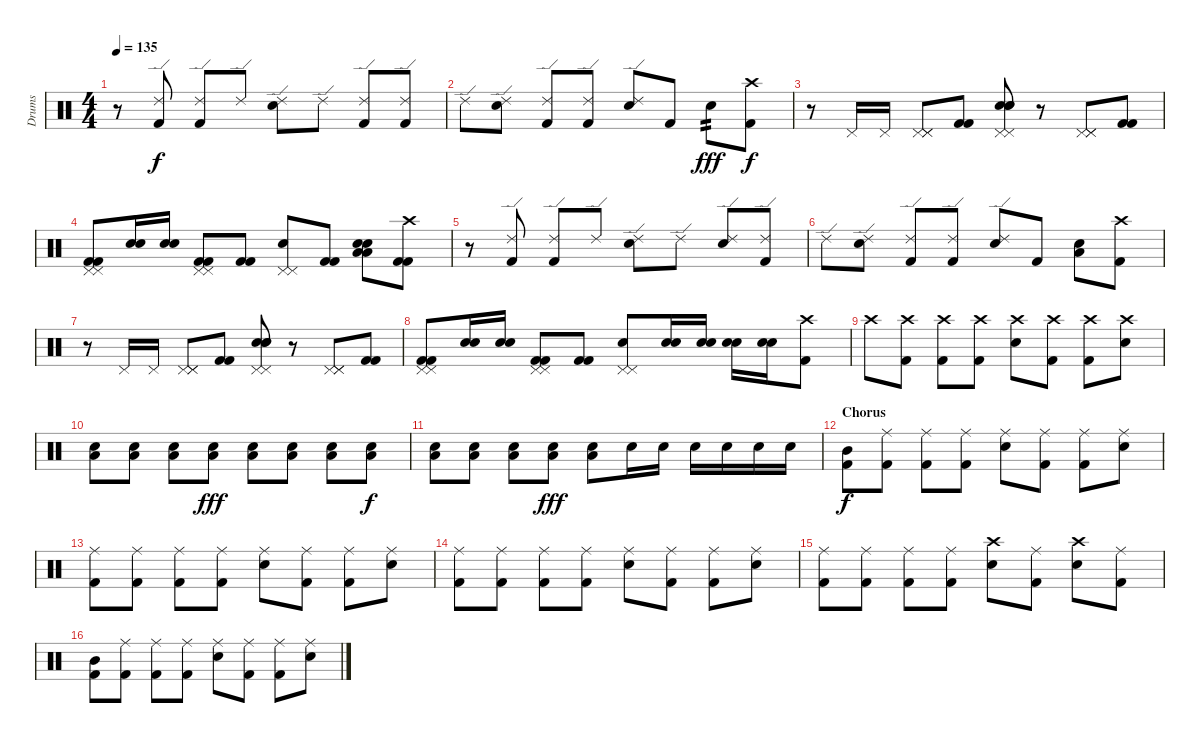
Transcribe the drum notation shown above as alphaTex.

\track ("Drums" "Drums") {instrument percussion}
\staff {score}
\articulation defaults
\ts (4 4)
\tempo 135
\clef neutral
\ks c
r.8{dy f} ("Ride (edge) 2" "Kick (hit) 2").8 ("Ride (edge) 2" "Kick (hit) 2").8 "Ride (edge) 2".8 ("Ride (edge) 2" "Snare (hit) 2").8 "Ride (edge) 2".8 ("Ride (edge) 2" "Kick (hit) 2").8 ("Ride (edge) 2" "Kick (hit) 2").8 |
"Ride (edge) 2".8 ("Ride (edge) 2" "Snare (hit) 2").8 ("Ride (edge) 2" "Kick (hit) 2").8 ("Ride (edge) 2" "Kick (hit) 2").8 ("Ride (edge) 2" "Snare (hit) 2").8 "Kick (hit) 2".8 "Snare (hit) 2".8{tp 2 dy fff} ("Crash high (hit)" "Kick (hit) 2").8{dy f} |
r.8 "Pedal Hi-Hat (hit)".16 "Pedal Hi-Hat (hit)".16 ("Pedal Hi-Hat (hit)" "Pedal Hi-Hat (hit)" "Pedal Hi-Hat (hit)").8 ("Kick (hit) 2" "Kick (hit) 2").8 ("Pedal Hi-Hat (hit)" "Pedal Hi-Hat (hit)" "Snare (hit) 2" "Snare (hit) 2" "Snare (hit) 2").8 r.8 ("Pedal Hi-Hat (hit)" "Pedal Hi-Hat (hit)" "Pedal Hi-Hat (hit)").8 ("Kick (hit) 2" "Kick (hit) 2").8 |
("Pedal Hi-Hat (hit)" "Pedal Hi-Hat (hit)" "Kick (hit) 2" "Kick (hit) 2").8 ("Snare (hit) 2" "Snare (hit) 2").16 ("Snare (hit) 2" "Snare (hit) 2").16 ("Pedal Hi-Hat (hit)" "Pedal Hi-Hat (hit)" "Kick (hit) 2" "Kick (hit) 2").8 ("Kick (hit) 2" "Kick (hit) 2").8 ("Pedal Hi-Hat (hit)" "Pedal Hi-Hat (hit)" "Snare (hit) 2").8 ("Kick (hit) 2" "Kick (hit) 2").8 ("Snare (hit) 2" "Snare (hit) 2" "Low Floor Tom (hit)" "Low Floor Tom (hit)").8 ("Crash high (hit)" "Kick (hit) 2" "Kick (hit) 2").8 |
r.8 ("Ride (edge) 2" "Kick (hit) 2").8 ("Ride (edge) 2" "Kick (hit) 2").8 "Ride (edge) 2".8 ("Ride (edge) 2" "Snare (hit) 2").8 "Ride (edge) 2".8 ("Ride (edge) 2" "Snare (hit) 2").8 ("Ride (edge) 2" "Kick (hit) 2").8 |
"Ride (edge) 2".8 ("Ride (edge) 2" "Snare (hit) 2").8 ("Ride (edge) 2" "Kick (hit) 2").8 ("Ride (edge) 2" "Kick (hit) 2").8 ("Ride (edge) 2" "Snare (hit) 2").8 "Kick (hit) 2".8 ("Snare (hit) 2" "Low Floor Tom (hit)").8 ("Crash high (hit)" "Kick (hit) 2").8 |
r.8 "Pedal Hi-Hat (hit)".16 "Pedal Hi-Hat (hit)".16 ("Pedal Hi-Hat (hit)" "Pedal Hi-Hat (hit)" "Pedal Hi-Hat (hit)").8 ("Kick (hit) 2" "Kick (hit) 2").8 ("Pedal Hi-Hat (hit)" "Pedal Hi-Hat (hit)" "Snare (hit) 2" "Snare (hit) 2" "Snare (hit) 2").8 r.8 ("Pedal Hi-Hat (hit)" "Pedal Hi-Hat (hit)" "Pedal Hi-Hat (hit)").8 ("Kick (hit) 2" "Kick (hit) 2").8 |
("Pedal Hi-Hat (hit)" "Pedal Hi-Hat (hit)" "Kick (hit) 2" "Kick (hit) 2").8 ("Snare (hit) 2" "Snare (hit) 2").16 ("Snare (hit) 2" "Snare (hit) 2").16 ("Pedal Hi-Hat (hit)" "Pedal Hi-Hat (hit)" "Kick (hit) 2" "Kick (hit) 2").8 ("Kick (hit) 2" "Kick (hit) 2").8 ("Pedal Hi-Hat (hit)" "Pedal Hi-Hat (hit)" "Snare (hit) 2").8 ("Snare (hit) 2" "Snare (hit) 2").16 ("Snare (hit) 2" "Snare (hit) 2").16 ("Snare (hit) 2" "Snare (hit) 2").16 ("Snare (hit) 2" "Snare (hit) 2").16 ("Crash high (hit)" "Kick (hit) 2").8 |
"Crash high (hit)".8 ("Crash high (hit)" "Kick (hit) 2").8 ("Crash high (hit)" "Kick (hit) 2").8 ("Crash high (hit)" "Kick (hit) 2").8 ("Crash high (hit)" "Snare (hit) 2").8 ("Crash high (hit)" "Kick (hit) 2").8 ("Crash high (hit)" "Kick (hit) 2").8 ("Crash high (hit)" "Snare (hit) 2").8 |
("Snare (hit) 2" "Low Floor Tom (hit)").8 ("Snare (hit) 2" "Low Floor Tom (hit)").8 ("Snare (hit) 2" "Low Floor Tom (hit)").8 ("Snare (hit) 2" "Low Floor Tom (hit)").8{dy fff} ("Snare (hit) 2" "Low Floor Tom (hit)").8 ("Snare (hit) 2" "Low Floor Tom (hit)").8 ("Snare (hit) 2" "Low Floor Tom (hit)").8 ("Snare (hit) 2" "Low Floor Tom (hit)").8{dy f} |
("Snare (hit) 2" "Low Floor Tom (hit)").8 ("Snare (hit) 2" "Low Floor Tom (hit)").8 ("Snare (hit) 2" "Low Floor Tom (hit)").8 ("Snare (hit) 2" "Low Floor Tom (hit)").8{dy fff} ("Snare (hit) 2" "Low Floor Tom (hit)").8 "Snare (hit) 2".16 "Snare (hit) 2".16 "Snare (hit) 2".16 "Snare (hit) 2".16 "Snare (hit) 2".16 "Snare (hit) 2".16 |
\section ("" "Chorus")
("Mid Tom (hit)" "Kick (hit) 2").8{dy f} ("Ride (middle)" "Kick (hit) 2").8 ("Ride (middle)" "Kick (hit) 2").8 ("Ride (middle)" "Kick (hit) 2").8 ("Ride (middle)" "Snare (hit) 2").8 ("Ride (middle)" "Kick (hit) 2").8 ("Ride (middle)" "Kick (hit) 2").8 ("Ride (middle)" "Snare (hit) 2").8 |
("Ride (middle)" "Kick (hit) 2").8 ("Ride (middle)" "Kick (hit) 2").8 ("Ride (middle)" "Kick (hit) 2").8 ("Ride (middle)" "Kick (hit) 2").8 ("Ride (middle)" "Snare (hit) 2").8 ("Ride (middle)" "Kick (hit) 2").8 ("Ride (middle)" "Kick (hit) 2").8 ("Ride (middle)" "Snare (hit) 2").8 |
("Ride (middle)" "Kick (hit) 2").8 ("Ride (middle)" "Kick (hit) 2").8 ("Ride (middle)" "Kick (hit) 2").8 ("Ride (middle)" "Kick (hit) 2").8 ("Ride (middle)" "Snare (hit) 2").8 ("Ride (middle)" "Kick (hit) 2").8 ("Ride (middle)" "Kick (hit) 2").8 ("Ride (middle)" "Snare (hit) 2").8 |
("Ride (middle)" "Kick (hit) 2").8 ("Ride (middle)" "Kick (hit) 2").8 ("Ride (middle)" "Kick (hit) 2").8 ("Ride (middle)" "Kick (hit) 2").8 ("Crash high (hit)" "Snare (hit) 2").8 ("Ride (middle)" "Kick (hit) 2").8 ("Crash high (hit)" "Snare (hit) 2").8 ("Ride (middle)" "Kick (hit) 2").8 |
("Mid Tom (hit)" "Kick (hit) 2").8 ("Ride (middle)" "Kick (hit) 2").8 ("Ride (middle)" "Kick (hit) 2").8 ("Ride (middle)" "Kick (hit) 2").8 ("Ride (middle)" "Snare (hit) 2").8 ("Ride (middle)" "Kick (hit) 2").8 ("Ride (middle)" "Kick (hit) 2").8 ("Ride (middle)" "Snare (hit) 2").8
